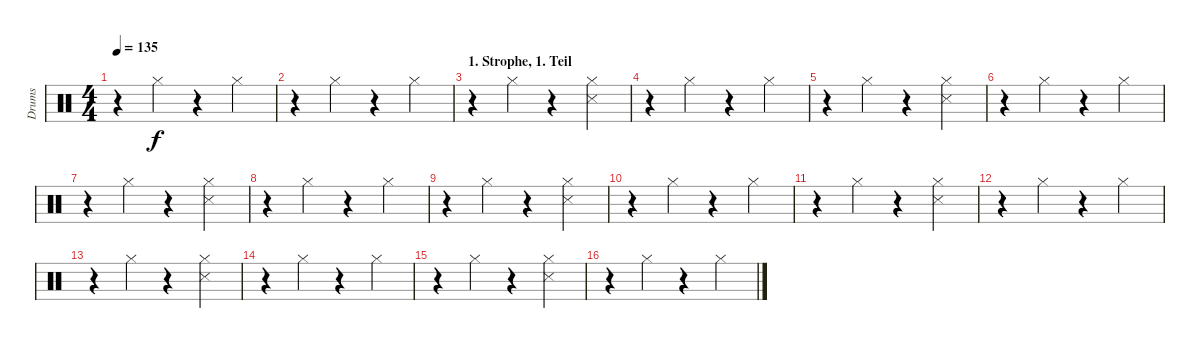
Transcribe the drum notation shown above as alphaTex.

\track ("Drums" "Drums") {instrument percussion}
\staff {score}
\articulation defaults
\ts (4 4)
\tempo 135
\clef neutral
\ks c
r.4{dy f} "Hi-Hat (closed)".4 r.4 "Hi-Hat (closed)".4 |
r.4 "Hi-Hat (closed)".4 r.4 "Hi-Hat (closed)".4 |
\section ("" "1. Strophe, 1. Teil")
r.4 "Hi-Hat (closed)".4 r.4 ("Hi-Hat (closed)" "Snare (side stick) 3").4 |
r.4 "Hi-Hat (closed)".4 r.4 "Hi-Hat (closed)".4 |
r.4 "Hi-Hat (closed)".4 r.4 ("Hi-Hat (closed)" "Snare (side stick) 3").4 |
r.4 "Hi-Hat (closed)".4 r.4 "Hi-Hat (closed)".4 |
r.4 "Hi-Hat (closed)".4 r.4 ("Hi-Hat (closed)" "Snare (side stick) 3").4 |
r.4 "Hi-Hat (closed)".4 r.4 "Hi-Hat (closed)".4 |
r.4 "Hi-Hat (closed)".4 r.4 ("Hi-Hat (closed)" "Snare (side stick) 3").4 |
r.4 "Hi-Hat (closed)".4 r.4 "Hi-Hat (closed)".4 |
r.4 "Hi-Hat (closed)".4 r.4 ("Hi-Hat (closed)" "Snare (side stick) 3").4 |
r.4 "Hi-Hat (closed)".4 r.4 "Hi-Hat (closed)".4 |
r.4 "Hi-Hat (closed)".4 r.4 ("Hi-Hat (closed)" "Snare (side stick) 3").4 |
r.4 "Hi-Hat (closed)".4 r.4 "Hi-Hat (closed)".4 |
r.4 "Hi-Hat (closed)".4 r.4 ("Hi-Hat (closed)" "Snare (side stick) 3").4 |
r.4 "Hi-Hat (closed)".4 r.4 "Hi-Hat (closed)".4
